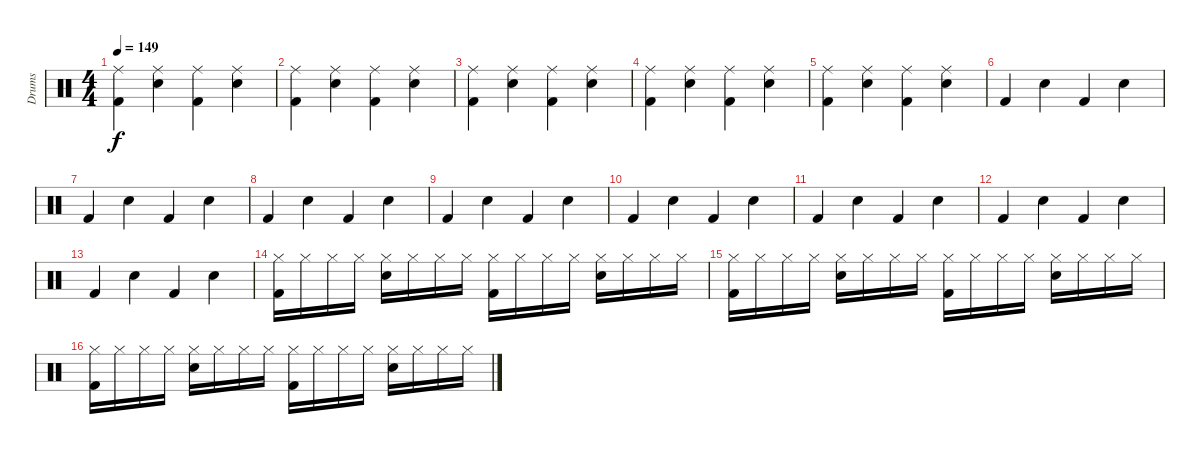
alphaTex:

\track ("Drums" "Drums") {instrument percussion}
\staff {score}
\articulation defaults
\ts (4 4)
\tempo 149
\clef neutral
\ks c
("Ride (middle)" "Kick (hit) 2").4{dy f} ("Ride (middle)" "Snare (hit) 2").4 ("Ride (middle)" "Kick (hit) 2").4 ("Ride (middle)" "Snare (hit) 2").4 |
("Ride (middle)" "Kick (hit) 2").4 ("Ride (middle)" "Snare (hit) 2").4 ("Ride (middle)" "Kick (hit) 2").4 ("Ride (middle)" "Snare (hit) 2").4 |
("Ride (middle)" "Kick (hit) 2").4 ("Ride (middle)" "Snare (hit) 2").4 ("Ride (middle)" "Kick (hit) 2").4 ("Ride (middle)" "Snare (hit) 2").4 |
("Ride (middle)" "Kick (hit) 2").4 ("Ride (middle)" "Snare (hit) 2").4 ("Ride (middle)" "Kick (hit) 2").4 ("Ride (middle)" "Snare (hit) 2").4 |
("Ride (middle)" "Kick (hit) 2").4 ("Ride (middle)" "Snare (hit) 2").4 ("Ride (middle)" "Kick (hit) 2").4 ("Ride (middle)" "Snare (hit) 2").4 |
"Kick (hit) 2".4 "Snare (hit) 2".4 "Kick (hit) 2".4 "Snare (hit) 2".4 |
"Kick (hit) 2".4 "Snare (hit) 2".4 "Kick (hit) 2".4 "Snare (hit) 2".4 |
"Kick (hit) 2".4 "Snare (hit) 2".4 "Kick (hit) 2".4 "Snare (hit) 2".4 |
"Kick (hit) 2".4 "Snare (hit) 2".4 "Kick (hit) 2".4 "Snare (hit) 2".4 |
"Kick (hit) 2".4 "Snare (hit) 2".4 "Kick (hit) 2".4 "Snare (hit) 2".4 |
"Kick (hit) 2".4 "Snare (hit) 2".4 "Kick (hit) 2".4 "Snare (hit) 2".4 |
"Kick (hit) 2".4 "Snare (hit) 2".4 "Kick (hit) 2".4 "Snare (hit) 2".4 |
"Kick (hit) 2".4 "Snare (hit) 2".4 "Kick (hit) 2".4 "Snare (hit) 2".4 |
("Hi-Hat (closed)" "Kick (hit) 2").16 "Hi-Hat (closed)".16 "Hi-Hat (closed)".16 "Hi-Hat (closed)".16 ("Hi-Hat (closed)" "Snare (hit) 2").16 "Hi-Hat (closed)".16 "Hi-Hat (closed)".16 "Hi-Hat (closed)".16 ("Hi-Hat (closed)" "Kick (hit) 2").16 "Hi-Hat (closed)".16 "Hi-Hat (closed)".16 "Hi-Hat (closed)".16 ("Hi-Hat (closed)" "Snare (hit) 2").16 "Hi-Hat (closed)".16 "Hi-Hat (closed)".16 "Hi-Hat (closed)".16 |
("Hi-Hat (closed)" "Kick (hit) 2").16 "Hi-Hat (closed)".16 "Hi-Hat (closed)".16 "Hi-Hat (closed)".16 ("Hi-Hat (closed)" "Snare (hit) 2").16 "Hi-Hat (closed)".16 "Hi-Hat (closed)".16 "Hi-Hat (closed)".16 ("Hi-Hat (closed)" "Kick (hit) 2").16 "Hi-Hat (closed)".16 "Hi-Hat (closed)".16 "Hi-Hat (closed)".16 ("Hi-Hat (closed)" "Snare (hit) 2").16 "Hi-Hat (closed)".16 "Hi-Hat (closed)".16 "Hi-Hat (closed)".16 |
("Hi-Hat (closed)" "Kick (hit) 2").16 "Hi-Hat (closed)".16 "Hi-Hat (closed)".16 "Hi-Hat (closed)".16 ("Hi-Hat (closed)" "Snare (hit) 2").16 "Hi-Hat (closed)".16 "Hi-Hat (closed)".16 "Hi-Hat (closed)".16 ("Hi-Hat (closed)" "Kick (hit) 2").16 "Hi-Hat (closed)".16 "Hi-Hat (closed)".16 "Hi-Hat (closed)".16 ("Hi-Hat (closed)" "Snare (hit) 2").16 "Hi-Hat (closed)".16 "Hi-Hat (closed)".16 "Hi-Hat (closed)".16
